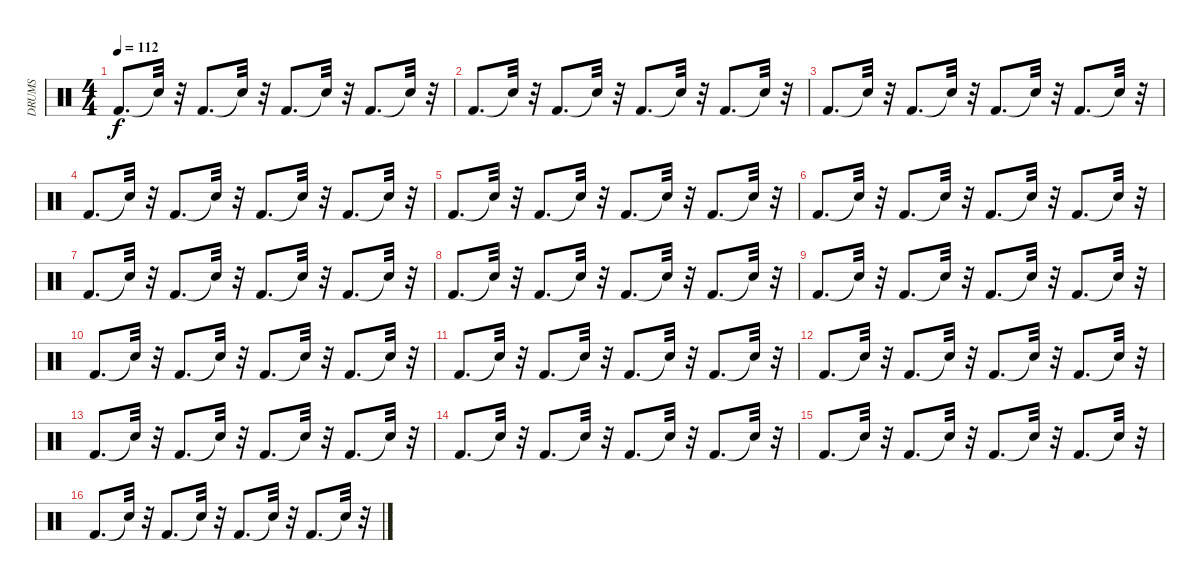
\track ("DRUMS" "DRUMS") {instrument percussion}
\staff {score}
\articulation defaults
\ts (4 4)
\tempo 112
\clef neutral
\ks c "Kick (hit) 2".8{d dy f} "Snare (hit)"{t}.32
r.32 "Kick (hit) 2".8{d} "Snare (hit)"{t}.32 r.32 "Kick (hit) 2".8{d} "Snare (hit)"{t}.32 r.32 "Kick (hit) 2".8{d} "Snare (hit)"{t}.32 r.32 |
"Kick (hit) 2".8{d} "Snare (hit)"{t}.32 r.32 "Kick (hit) 2".8{d} "Snare (hit)"{t}.32 r.32 "Kick (hit) 2".8{d} "Snare (hit)"{t}.32 r.32 "Kick (hit) 2".8{d} "Snare (hit)"{t}.32 r.32 |
"Kick (hit) 2".8{d} "Snare (hit)"{t}.32 r.32 "Kick (hit) 2".8{d} "Snare (hit)"{t}.32 r.32 "Kick (hit) 2".8{d} "Snare (hit)"{t}.32 r.32 "Kick (hit) 2".8{d} "Snare (hit)"{t}.32 r.32 |
"Kick (hit) 2".8{d} "Snare (hit)"{t}.32 r.32 "Kick (hit) 2".8{d} "Snare (hit)"{t}.32 r.32 "Kick (hit) 2".8{d} "Snare (hit)"{t}.32 r.32 "Kick (hit) 2".8{d} "Snare (hit)"{t}.32 r.32 |
"Kick (hit) 2".8{d} "Snare (hit)"{t}.32 r.32 "Kick (hit) 2".8{d} "Snare (hit)"{t}.32 r.32 "Kick (hit) 2".8{d} "Snare (hit)"{t}.32 r.32 "Kick (hit) 2".8{d} "Snare (hit)"{t}.32 r.32 |
"Kick (hit) 2".8{d} "Snare (hit)"{t}.32 r.32 "Kick (hit) 2".8{d} "Snare (hit)"{t}.32 r.32 "Kick (hit) 2".8{d} "Snare (hit)"{t}.32 r.32 "Kick (hit) 2".8{d} "Snare (hit)"{t}.32 r.32 |
"Kick (hit) 2".8{d} "Snare (hit)"{t}.32 r.32 "Kick (hit) 2".8{d} "Snare (hit)"{t}.32 r.32 "Kick (hit) 2".8{d} "Snare (hit)"{t}.32 r.32 "Kick (hit) 2".8{d} "Snare (hit)"{t}.32 r.32 |
"Kick (hit) 2".8{d} "Snare (hit)"{t}.32 r.32 "Kick (hit) 2".8{d} "Snare (hit)"{t}.32 r.32 "Kick (hit) 2".8{d} "Snare (hit)"{t}.32 r.32 "Kick (hit) 2".8{d} "Snare (hit)"{t}.32 r.32 |
"Kick (hit) 2".8{d} "Snare (hit)"{t}.32 r.32 "Kick (hit) 2".8{d} "Snare (hit)"{t}.32 r.32 "Kick (hit) 2".8{d} "Snare (hit)"{t}.32 r.32 "Kick (hit) 2".8{d} "Snare (hit)"{t}.32 r.32 |
"Kick (hit) 2".8{d} "Snare (hit)"{t}.32 r.32 "Kick (hit) 2".8{d} "Snare (hit)"{t}.32 r.32 "Kick (hit) 2".8{d} "Snare (hit)"{t}.32 r.32 "Kick (hit) 2".8{d} "Snare (hit)"{t}.32 r.32 |
"Kick (hit) 2".8{d} "Snare (hit)"{t}.32 r.32 "Kick (hit) 2".8{d} "Snare (hit)"{t}.32 r.32 "Kick (hit) 2".8{d} "Snare (hit)"{t}.32 r.32 "Kick (hit) 2".8{d} "Snare (hit)"{t}.32 r.32 |
"Kick (hit) 2".8{d} "Snare (hit)"{t}.32 r.32 "Kick (hit) 2".8{d} "Snare (hit)"{t}.32 r.32 "Kick (hit) 2".8{d} "Snare (hit)"{t}.32 r.32 "Kick (hit) 2".8{d} "Snare (hit)"{t}.32 r.32 |
"Kick (hit) 2".8{d} "Snare (hit)"{t}.32 r.32 "Kick (hit) 2".8{d} "Snare (hit)"{t}.32 r.32 "Kick (hit) 2".8{d} "Snare (hit)"{t}.32 r.32 "Kick (hit) 2".8{d} "Snare (hit)"{t}.32 r.32 |
"Kick (hit) 2".8{d} "Snare (hit)"{t}.32 r.32 "Kick (hit) 2".8{d} "Snare (hit)"{t}.32 r.32 "Kick (hit) 2".8{d} "Snare (hit)"{t}.32 r.32 "Kick (hit) 2".8{d} "Snare (hit)"{t}.32 r.32 |
"Kick (hit) 2".8{d} "Snare (hit)"{t}.32 r.32 "Kick (hit) 2".8{d} "Snare (hit)"{t}.32 r.32 "Kick (hit) 2".8{d} "Snare (hit)"{t}.32 r.32 "Kick (hit) 2".8{d} "Snare (hit)"{t}.32 r.32 |
"Kick (hit) 2".8{d} "Snare (hit)"{t}.32 r.32 "Kick (hit) 2".8{d} "Snare (hit)"{t}.32 r.32 "Kick (hit) 2".8{d} "Snare (hit)"{t}.32 r.32 "Kick (hit) 2".8{d} "Snare (hit)"{t}.32 r.32
